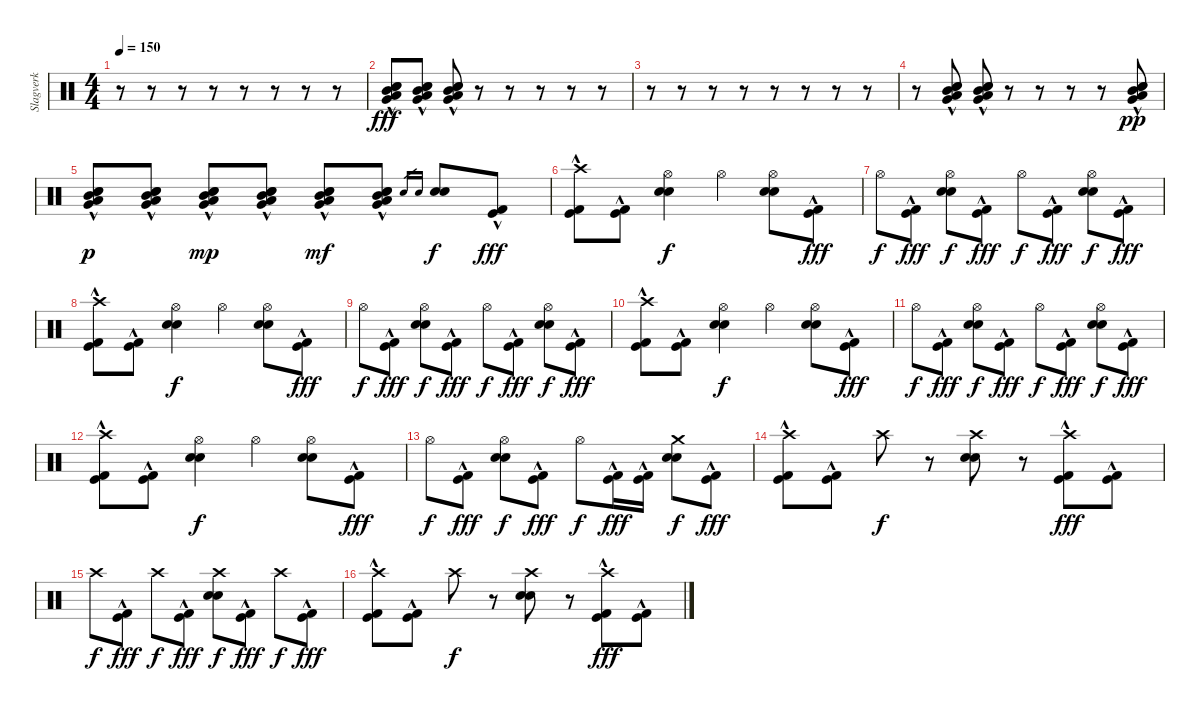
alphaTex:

\track ("Slagverk" "Slagverk") {instrument percussion}
\staff {score}
\articulation defaults
\ts (4 4)
\tempo 150
\clef neutral
\ks c
r.8{dy fff} r.8 r.8 r.8 r.8 r.8 r.8 r.8 |
("Very Low Tom (hit)"{hac} "Electric Snare (hit)" "Snare (hit) 2" "Low Tom (hit)"{hac} "Mid Tom (hit)"{hac}).8 ("Very Low Tom (hit)"{hac} "Electric Snare (hit)" "Snare (hit) 2" "Low Tom (hit)"{hac} "Mid Tom (hit)"{hac}).8 ("Very Low Tom (hit)"{hac} "Electric Snare (hit)" "Snare (hit) 2" "Low Tom (hit)"{hac} "Mid Tom (hit)"{hac}).8 r.8 r.8 r.8 r.8 r.8 |
r.8 r.8 r.8 r.8 r.8 r.8 r.8 r.8 |
r.8 ("Very Low Tom (hit)"{hac} "Electric Snare (hit)" "Snare (hit) 2" "Low Tom (hit)"{hac} "Mid Tom (hit)"{hac}).8 ("Very Low Tom (hit)"{hac} "Electric Snare (hit)" "Snare (hit) 2" "Low Tom (hit)"{hac} "Mid Tom (hit)"{hac}).8 r.8 r.8 r.8 r.8 ("Very Low Tom (hit)"{hac} "Electric Snare (hit)" "Snare (hit) 2" "Low Tom (hit)"{hac} "Mid Tom (hit)"{hac}).8{dy pp} |
("Very Low Tom (hit)"{hac} "Electric Snare (hit)" "Snare (hit) 2" "Low Tom (hit)"{hac} "Mid Tom (hit)"{hac}).8{dy p} ("Very Low Tom (hit)"{hac} "Electric Snare (hit)" "Snare (hit) 2" "Low Tom (hit)"{hac} "Mid Tom (hit)"{hac}).8 ("Very Low Tom (hit)"{hac} "Electric Snare (hit)" "Snare (hit) 2" "Low Tom (hit)"{hac} "Mid Tom (hit)"{hac}).8{dy mp} ("Very Low Tom (hit)"{hac} "Electric Snare (hit)" "Snare (hit) 2" "Low Tom (hit)"{hac} "Mid Tom (hit)"{hac}).8 ("Very Low Tom (hit)"{hac} "Electric Snare (hit)" "Snare (hit) 2" "Low Tom (hit)"{hac} "Mid Tom (hit)"{hac}).8{dy mf} ("Very Low Tom (hit)"{hac} "Electric Snare (hit)" "Snare (hit) 2" "Low Tom (hit)"{hac} "Mid Tom (hit)"{hac}).8 "Electric Snare (hit)".16{gr} "Snare (hit) 2".16{gr} ("Electric Snare (hit)" "Snare (hit) 2").8{dy f} ("Kick (hit)"{hac} "Kick (hit) 2"{hac}).8{dy fff} |
("Crash high (hit)" "Kick (hit)"{hac} "Kick (hit) 2"{hac}).8 ("Kick (hit)"{hac} "Kick (hit) 2"{hac}).8 ("Hi-Hat (open)" "Electric Snare (hit)" "Snare (hit) 2").4{dy f} "Hi-Hat (open)".4 ("Hi-Hat (open)" "Electric Snare (hit)" "Snare (hit) 2").8 ("Kick (hit)"{hac} "Kick (hit) 2"{hac}).8{dy fff} |
"Hi-Hat (open)".8{dy f} ("Kick (hit)"{hac} "Kick (hit) 2"{hac}).8{dy fff} ("Hi-Hat (open)" "Electric Snare (hit)" "Snare (hit) 2").8{dy f} ("Kick (hit)"{hac} "Kick (hit) 2"{hac}).8{dy fff} "Hi-Hat (open)".8{dy f} ("Kick (hit)"{hac} "Kick (hit) 2"{hac}).8{dy fff} ("Hi-Hat (open)" "Electric Snare (hit)" "Snare (hit) 2").8{dy f} ("Kick (hit)"{hac} "Kick (hit) 2"{hac}).8{dy fff} |
("Crash high (hit)" "Kick (hit)"{hac} "Kick (hit) 2"{hac}).8 ("Kick (hit)"{hac} "Kick (hit) 2"{hac}).8 ("Hi-Hat (open)" "Electric Snare (hit)" "Snare (hit) 2").4{dy f} "Hi-Hat (open)".4 ("Hi-Hat (open)" "Electric Snare (hit)" "Snare (hit) 2").8 ("Kick (hit)"{hac} "Kick (hit) 2"{hac}).8{dy fff} |
"Hi-Hat (open)".8{dy f} ("Kick (hit)"{hac} "Kick (hit) 2"{hac}).8{dy fff} ("Hi-Hat (open)" "Electric Snare (hit)" "Snare (hit) 2").8{dy f} ("Kick (hit)"{hac} "Kick (hit) 2"{hac}).8{dy fff} "Hi-Hat (open)".8{dy f} ("Kick (hit)"{hac} "Kick (hit) 2"{hac}).8{dy fff} ("Hi-Hat (open)" "Electric Snare (hit)" "Snare (hit) 2").8{dy f} ("Kick (hit)"{hac} "Kick (hit) 2"{hac}).8{dy fff} |
("Crash high (hit)" "Kick (hit)"{hac} "Kick (hit) 2"{hac}).8 ("Kick (hit)"{hac} "Kick (hit) 2"{hac}).8 ("Hi-Hat (open)" "Electric Snare (hit)" "Snare (hit) 2").4{dy f} "Hi-Hat (open)".4 ("Hi-Hat (open)" "Electric Snare (hit)" "Snare (hit) 2").8 ("Kick (hit)"{hac} "Kick (hit) 2"{hac}).8{dy fff} |
"Hi-Hat (open)".8{dy f} ("Kick (hit)"{hac} "Kick (hit) 2"{hac}).8{dy fff} ("Hi-Hat (open)" "Electric Snare (hit)" "Snare (hit) 2").8{dy f} ("Kick (hit)"{hac} "Kick (hit) 2"{hac}).8{dy fff} "Hi-Hat (open)".8{dy f} ("Kick (hit)"{hac} "Kick (hit) 2"{hac}).8{dy fff} ("Hi-Hat (open)" "Electric Snare (hit)" "Snare (hit) 2").8{dy f} ("Kick (hit)"{hac} "Kick (hit) 2"{hac}).8{dy fff} |
("Crash high (hit)" "Kick (hit)"{hac} "Kick (hit) 2"{hac}).8 ("Kick (hit)"{hac} "Kick (hit) 2"{hac}).8 ("Hi-Hat (open)" "Electric Snare (hit)" "Snare (hit) 2").4{dy f} "Hi-Hat (open)".4 ("Hi-Hat (open)" "Electric Snare (hit)" "Snare (hit) 2").8 ("Kick (hit)"{hac} "Kick (hit) 2"{hac}).8{dy fff} |
"Hi-Hat (open)".8{dy f} ("Kick (hit)"{hac} "Kick (hit) 2"{hac}).8{dy fff} ("Hi-Hat (open)" "Electric Snare (hit)" "Snare (hit) 2").8{dy f} ("Kick (hit)"{hac} "Kick (hit) 2"{hac}).8{dy fff} "Hi-Hat (open)".8{dy f} ("Kick (hit)"{hac} "Kick (hit) 2"{hac}).16{dy fff} ("Kick (hit)"{hac} "Kick (hit) 2"{hac}).16 ("Crash medium (hit)" "Electric Snare (hit)" "Snare (hit) 2").8{dy f} ("Kick (hit)"{hac} "Kick (hit) 2"{hac}).8{dy fff} |
("Crash high (hit)" "Kick (hit)"{hac} "Kick (hit) 2"{hac}).8 ("Kick (hit)"{hac} "Kick (hit) 2"{hac}).8 "Crash high (hit)".8{dy f} r.8 ("Crash high (hit)" "Electric Snare (hit)" "Snare (hit) 2").8 r.8 ("Crash high (hit)" "Kick (hit)"{hac} "Kick (hit) 2"{hac}).8{dy fff} ("Kick (hit)"{hac} "Kick (hit) 2"{hac}).8 |
"Crash high (hit)".8{dy f} ("Kick (hit)"{hac} "Kick (hit) 2"{hac}).8{dy fff} "Crash high (hit)".8{dy f} ("Kick (hit)"{hac} "Kick (hit) 2"{hac}).8{dy fff} ("Crash high (hit)" "Electric Snare (hit)" "Snare (hit) 2").8{dy f} ("Kick (hit)"{hac} "Kick (hit) 2"{hac}).8{dy fff} "Crash high (hit)".8{dy f} ("Kick (hit)"{hac} "Kick (hit) 2"{hac}).8{dy fff} |
("Crash high (hit)" "Kick (hit)"{hac} "Kick (hit) 2"{hac}).8 ("Kick (hit)"{hac} "Kick (hit) 2"{hac}).8 "Crash high (hit)".8{dy f} r.8 ("Crash high (hit)" "Electric Snare (hit)" "Snare (hit) 2").8 r.8 ("Crash high (hit)" "Kick (hit)"{hac} "Kick (hit) 2"{hac}).8{dy fff} ("Kick (hit)"{hac} "Kick (hit) 2"{hac}).8
